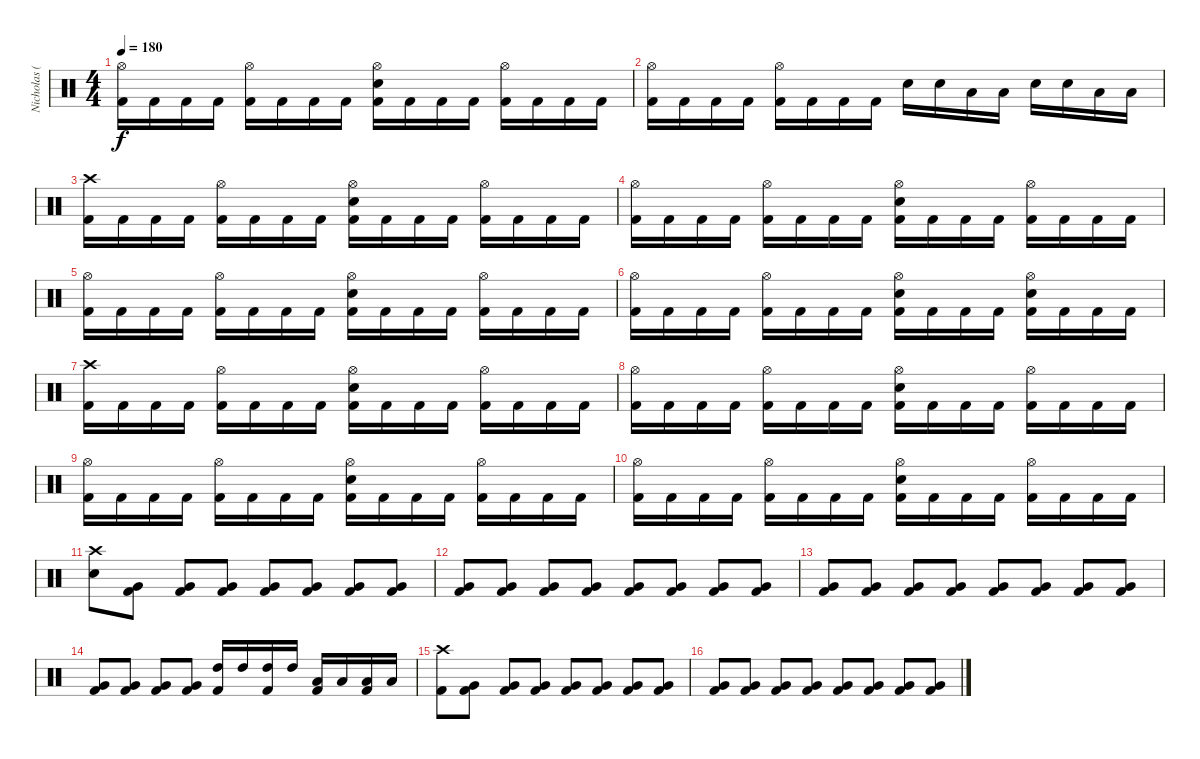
\track ("Nicholas (Drums)" "Nicholas (") {instrument percussion}
\staff {score}
\articulation defaults
\ts (4 4)
\tempo 180
\clef neutral
\ks c
("Hi-Hat (open)" "Kick (hit) 2").16{dy f} "Kick (hit) 2".16 "Kick (hit) 2".16 "Kick (hit) 2".16 ("Hi-Hat (open)" "Kick (hit) 2").16 "Kick (hit) 2".16 "Kick (hit) 2".16 "Kick (hit) 2".16 ("Hi-Hat (open)" "Electric Snare (hit)" "Kick (hit) 2").16 "Kick (hit) 2".16 "Kick (hit) 2".16 "Kick (hit) 2".16 ("Hi-Hat (open)" "Kick (hit) 2").16 "Kick (hit) 2".16 "Kick (hit) 2".16 "Kick (hit) 2".16 |
("Hi-Hat (open)" "Kick (hit) 2").16 "Kick (hit) 2".16 "Kick (hit) 2".16 "Kick (hit) 2".16 ("Hi-Hat (open)" "Kick (hit) 2").16 "Kick (hit) 2".16 "Kick (hit) 2".16 "Kick (hit) 2".16 "Electric Snare (hit)".16 "Electric Snare (hit)".16 "Low Tom (hit)".16 "Low Tom (hit)".16 "Electric Snare (hit)".16 "Electric Snare (hit)".16 "Low Tom (hit)".16 "Low Tom (hit)".16 |
("Crash high (hit)" "Kick (hit) 2").16 "Kick (hit) 2".16 "Kick (hit) 2".16 "Kick (hit) 2".16 ("Hi-Hat (open)" "Kick (hit) 2").16 "Kick (hit) 2".16 "Kick (hit) 2".16 "Kick (hit) 2".16 ("Hi-Hat (open)" "Electric Snare (hit)" "Kick (hit) 2").16 "Kick (hit) 2".16 "Kick (hit) 2".16 "Kick (hit) 2".16 ("Hi-Hat (open)" "Kick (hit) 2").16 "Kick (hit) 2".16 "Kick (hit) 2".16 "Kick (hit) 2".16 |
("Hi-Hat (open)" "Kick (hit) 2").16 "Kick (hit) 2".16 "Kick (hit) 2".16 "Kick (hit) 2".16 ("Hi-Hat (open)" "Kick (hit) 2").16 "Kick (hit) 2".16 "Kick (hit) 2".16 "Kick (hit) 2".16 ("Hi-Hat (open)" "Electric Snare (hit)" "Kick (hit) 2").16 "Kick (hit) 2".16 "Kick (hit) 2".16 "Kick (hit) 2".16 ("Hi-Hat (open)" "Kick (hit) 2").16 "Kick (hit) 2".16 "Kick (hit) 2".16 "Kick (hit) 2".16 |
("Hi-Hat (open)" "Kick (hit) 2").16 "Kick (hit) 2".16 "Kick (hit) 2".16 "Kick (hit) 2".16 ("Hi-Hat (open)" "Kick (hit) 2").16 "Kick (hit) 2".16 "Kick (hit) 2".16 "Kick (hit) 2".16 ("Hi-Hat (open)" "Electric Snare (hit)" "Kick (hit) 2").16 "Kick (hit) 2".16 "Kick (hit) 2".16 "Kick (hit) 2".16 ("Hi-Hat (open)" "Kick (hit) 2").16 "Kick (hit) 2".16 "Kick (hit) 2".16 "Kick (hit) 2".16 |
("Hi-Hat (open)" "Kick (hit) 2").16 "Kick (hit) 2".16 "Kick (hit) 2".16 "Kick (hit) 2".16 ("Hi-Hat (open)" "Kick (hit) 2").16 "Kick (hit) 2".16 "Kick (hit) 2".16 "Kick (hit) 2".16 ("Hi-Hat (open)" "Electric Snare (hit)" "Kick (hit) 2").16 "Kick (hit) 2".16 "Kick (hit) 2".16 "Kick (hit) 2".16 ("Hi-Hat (open)" "Electric Snare (hit)" "Kick (hit) 2").16 "Kick (hit) 2".16 "Kick (hit) 2".16 "Kick (hit) 2".16 |
("Crash high (hit)" "Kick (hit) 2").16 "Kick (hit) 2".16 "Kick (hit) 2".16 "Kick (hit) 2".16 ("Hi-Hat (open)" "Kick (hit) 2").16 "Kick (hit) 2".16 "Kick (hit) 2".16 "Kick (hit) 2".16 ("Hi-Hat (open)" "Electric Snare (hit)" "Kick (hit) 2").16 "Kick (hit) 2".16 "Kick (hit) 2".16 "Kick (hit) 2".16 ("Hi-Hat (open)" "Kick (hit) 2").16 "Kick (hit) 2".16 "Kick (hit) 2".16 "Kick (hit) 2".16 |
("Hi-Hat (open)" "Kick (hit) 2").16 "Kick (hit) 2".16 "Kick (hit) 2".16 "Kick (hit) 2".16 ("Hi-Hat (open)" "Kick (hit) 2").16 "Kick (hit) 2".16 "Kick (hit) 2".16 "Kick (hit) 2".16 ("Hi-Hat (open)" "Electric Snare (hit)" "Kick (hit) 2").16 "Kick (hit) 2".16 "Kick (hit) 2".16 "Kick (hit) 2".16 ("Hi-Hat (open)" "Kick (hit) 2").16 "Kick (hit) 2".16 "Kick (hit) 2".16 "Kick (hit) 2".16 |
("Hi-Hat (open)" "Kick (hit) 2").16 "Kick (hit) 2".16 "Kick (hit) 2".16 "Kick (hit) 2".16 ("Hi-Hat (open)" "Kick (hit) 2").16 "Kick (hit) 2".16 "Kick (hit) 2".16 "Kick (hit) 2".16 ("Hi-Hat (open)" "Electric Snare (hit)" "Kick (hit) 2").16 "Kick (hit) 2".16 "Kick (hit) 2".16 "Kick (hit) 2".16 ("Hi-Hat (open)" "Kick (hit) 2").16 "Kick (hit) 2".16 "Kick (hit) 2".16 "Kick (hit) 2".16 |
("Hi-Hat (open)" "Kick (hit) 2").16 "Kick (hit) 2".16 "Kick (hit) 2".16 "Kick (hit) 2".16 ("Hi-Hat (open)" "Kick (hit) 2").16 "Kick (hit) 2".16 "Kick (hit) 2".16 "Kick (hit) 2".16 ("Hi-Hat (open)" "Electric Snare (hit)" "Kick (hit) 2").16 "Kick (hit) 2".16 "Kick (hit) 2".16 "Kick (hit) 2".16 ("Hi-Hat (open)" "Kick (hit) 2").16 "Kick (hit) 2".16 "Kick (hit) 2".16 "Kick (hit) 2".16 |
("Crash high (hit)" "Electric Snare (hit)").8 ("Very Low Tom (hit)" "Kick (hit) 2").8 ("Very Low Tom (hit)" "Kick (hit) 2").8 ("Very Low Tom (hit)" "Kick (hit) 2").8 ("Very Low Tom (hit)" "Kick (hit) 2").8 ("Very Low Tom (hit)" "Kick (hit) 2").8 ("Very Low Tom (hit)" "Kick (hit) 2").8 ("Very Low Tom (hit)" "Kick (hit) 2").8 |
("Very Low Tom (hit)" "Kick (hit) 2").8 ("Very Low Tom (hit)" "Kick (hit) 2").8 ("Very Low Tom (hit)" "Kick (hit) 2").8 ("Very Low Tom (hit)" "Kick (hit) 2").8 ("Very Low Tom (hit)" "Kick (hit) 2").8 ("Very Low Tom (hit)" "Kick (hit) 2").8 ("Very Low Tom (hit)" "Kick (hit) 2").8 ("Very Low Tom (hit)" "Kick (hit) 2").8 |
("Very Low Tom (hit)" "Kick (hit) 2").8 ("Very Low Tom (hit)" "Kick (hit) 2").8 ("Very Low Tom (hit)" "Kick (hit) 2").8 ("Very Low Tom (hit)" "Kick (hit) 2").8 ("Very Low Tom (hit)" "Kick (hit) 2").8 ("Very Low Tom (hit)" "Kick (hit) 2").8 ("Very Low Tom (hit)" "Kick (hit) 2").8 ("Very Low Tom (hit)" "Kick (hit) 2").8 |
("Very Low Tom (hit)" "Kick (hit) 2").8 ("Very Low Tom (hit)" "Kick (hit) 2").8 ("Very Low Tom (hit)" "Kick (hit) 2").8 ("Very Low Tom (hit)" "Kick (hit) 2").8 ("High Tom (hit)" "Kick (hit) 2").16 "High Tom (hit)".16 ("High Tom (hit)" "Kick (hit) 2").16 "High Tom (hit)".16 ("Low Tom (hit)" "Kick (hit) 2").16 "Low Tom (hit)".16 ("Low Tom (hit)" "Kick (hit) 2").16 "Low Tom (hit)".16 |
("Crash high (hit)" "Kick (hit) 2").8 ("Very Low Tom (hit)" "Kick (hit) 2").8 ("Very Low Tom (hit)" "Kick (hit) 2").8 ("Very Low Tom (hit)" "Kick (hit) 2").8 ("Very Low Tom (hit)" "Kick (hit) 2").8 ("Very Low Tom (hit)" "Kick (hit) 2").8 ("Very Low Tom (hit)" "Kick (hit) 2").8 ("Very Low Tom (hit)" "Kick (hit) 2").8 |
("Very Low Tom (hit)" "Kick (hit) 2").8 ("Very Low Tom (hit)" "Kick (hit) 2").8 ("Very Low Tom (hit)" "Kick (hit) 2").8 ("Very Low Tom (hit)" "Kick (hit) 2").8 ("Very Low Tom (hit)" "Kick (hit) 2").8 ("Very Low Tom (hit)" "Kick (hit) 2").8 ("Very Low Tom (hit)" "Kick (hit) 2").8 ("Very Low Tom (hit)" "Kick (hit) 2").8
